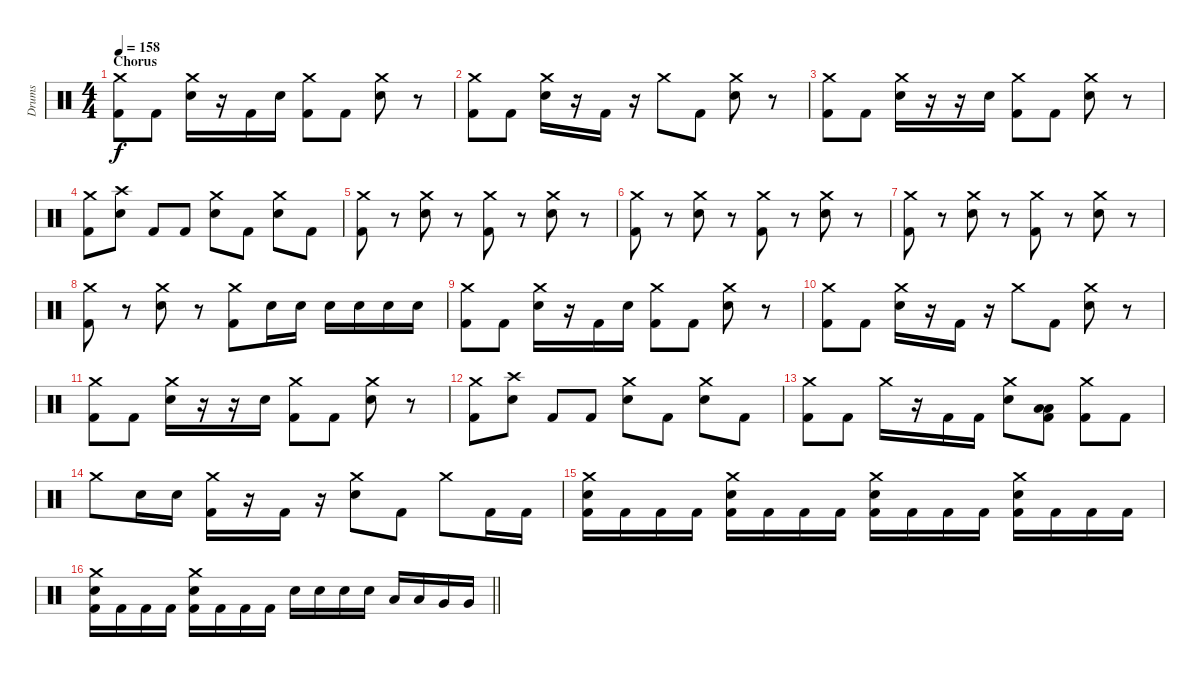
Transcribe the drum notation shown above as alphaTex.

\track ("Drums" "Drums") {instrument percussion}
\staff {score}
\articulation defaults
\ts (4 4)
\section ("" "Chorus")
\tempo 158
\clef neutral
\ks c
("Crash medium (hit)" "Kick (hit) 2").8{dy f} "Kick (hit) 2".8 ("Crash medium (hit)" "Snare (hit) 2").16 r.16 "Kick (hit) 2".16 "Snare (hit) 2".16 ("Crash medium (hit)" "Kick (hit) 2").8 "Kick (hit) 2".8 ("Crash medium (hit)" "Snare (hit) 2").8 r.8 |
("Crash medium (hit)" "Kick (hit) 2").8 "Kick (hit) 2".8 ("Crash medium (hit)" "Snare (hit) 2").16 r.16 "Kick (hit) 2".16 r.16 "Crash medium (hit)".8 "Kick (hit) 2".8 ("Crash medium (hit)" "Snare (hit) 2").8 r.8 |
("Crash medium (hit)" "Kick (hit) 2").8 "Kick (hit) 2".8 ("Crash medium (hit)" "Snare (hit) 2").16 r.16 r.16 "Snare (hit) 2".16 ("Crash medium (hit)" "Kick (hit) 2").8 "Kick (hit) 2".8 ("Crash medium (hit)" "Snare (hit) 2").8 r.8 |
("Crash medium (hit)" "Kick (hit) 2").8 ("Crash high (hit)" "Snare (hit) 2").8 "Kick (hit) 2".8 "Kick (hit) 2".8 ("Crash medium (hit)" "Snare (hit) 2").8 "Kick (hit) 2".8 ("Crash medium (hit)" "Snare (hit) 2").8 "Kick (hit) 2".8 |
("Crash medium (hit)" "Kick (hit) 2").8 r.8 ("Crash medium (hit)" "Snare (hit) 2").8 r.8 ("Crash medium (hit)" "Kick (hit) 2").8 r.8 ("Crash medium (hit)" "Snare (hit) 2").8 r.8 |
("Crash medium (hit)" "Kick (hit) 2").8 r.8 ("Crash medium (hit)" "Snare (hit) 2").8 r.8 ("Crash medium (hit)" "Kick (hit) 2").8 r.8 ("Crash medium (hit)" "Snare (hit) 2").8 r.8 |
("Crash medium (hit)" "Kick (hit) 2").8 r.8 ("Crash medium (hit)" "Snare (hit) 2").8 r.8 ("Crash medium (hit)" "Kick (hit) 2").8 r.8 ("Crash medium (hit)" "Snare (hit) 2").8 r.8 |
("Crash medium (hit)" "Kick (hit) 2").8 r.8 ("Crash medium (hit)" "Snare (hit) 2").8 r.8 ("Crash medium (hit)" "Kick (hit) 2").8 "Snare (hit) 2".16 "Snare (hit) 2".16 "Snare (hit) 2".16 "Snare (hit) 2".16 "Snare (hit) 2".16 "Snare (hit) 2".16 |
("Crash medium (hit)" "Kick (hit) 2").8 "Kick (hit) 2".8 ("Crash medium (hit)" "Snare (hit) 2").16 r.16 "Kick (hit) 2".16 "Snare (hit) 2".16 ("Crash medium (hit)" "Kick (hit) 2").8 "Kick (hit) 2".8 ("Crash medium (hit)" "Snare (hit) 2").8 r.8 |
("Crash medium (hit)" "Kick (hit) 2").8 "Kick (hit) 2".8 ("Crash medium (hit)" "Snare (hit) 2").16 r.16 "Kick (hit) 2".16 r.16 "Crash medium (hit)".8 "Kick (hit) 2".8 ("Crash medium (hit)" "Snare (hit) 2").8 r.8 |
("Crash medium (hit)" "Kick (hit) 2").8 "Kick (hit) 2".8 ("Crash medium (hit)" "Snare (hit) 2").16 r.16 r.16 "Snare (hit) 2".16 ("Crash medium (hit)" "Kick (hit) 2").8 "Kick (hit) 2".8 ("Crash medium (hit)" "Snare (hit) 2").8 r.8 |
("Crash medium (hit)" "Kick (hit) 2").8 ("Crash high (hit)" "Snare (hit) 2").8 "Kick (hit) 2".8 "Kick (hit) 2".8 ("Crash medium (hit)" "Snare (hit) 2").8 "Kick (hit) 2".8 ("Crash medium (hit)" "Snare (hit) 2").8 "Kick (hit) 2".8 |
("Crash medium (hit)" "Kick (hit) 2").8 "Kick (hit) 2".8 "Crash medium (hit)".16 r.16 "Kick (hit) 2".16 "Kick (hit) 2".16 ("Crash medium (hit)" "Snare (hit) 2").8 ("Low Floor Tom (hit)" "Low Tom (hit)" "Kick (hit) 2").8 ("Crash medium (hit)" "Kick (hit) 2").8 "Kick (hit) 2".8 |
"Crash medium (hit)".8 "Snare (hit) 2".16 "Snare (hit) 2".16 ("Crash medium (hit)" "Kick (hit) 2").16 r.16 "Kick (hit) 2".16 r.16 ("Crash medium (hit)" "Snare (hit) 2").8 "Kick (hit) 2".8 "Crash medium (hit)".8 "Kick (hit) 2".16 "Kick (hit) 2".16 |
("Crash medium (hit)" "Snare (hit) 2" "Kick (hit) 2").16 "Kick (hit) 2".16 "Kick (hit) 2".16 "Kick (hit) 2".16 ("Crash medium (hit)" "Snare (hit) 2" "Kick (hit) 2").16 "Kick (hit) 2".16 "Kick (hit) 2".16 "Kick (hit) 2".16 ("Crash medium (hit)" "Snare (hit) 2" "Kick (hit) 2").16 "Kick (hit) 2".16 "Kick (hit) 2".16 "Kick (hit) 2".16 ("Crash medium (hit)" "Snare (hit) 2" "Kick (hit) 2").16 "Kick (hit) 2".16 "Kick (hit) 2".16 "Kick (hit) 2".16 |
\barLineRight lightlight
("Crash medium (hit)" "Snare (hit) 2" "Kick (hit) 2").16 "Kick (hit) 2".16 "Kick (hit) 2".16 "Kick (hit) 2".16 ("Crash medium (hit)" "Snare (hit) 2" "Kick (hit) 2").16 "Kick (hit) 2".16 "Kick (hit) 2".16 "Kick (hit) 2".16 "Snare (hit) 2".16 "Snare (hit) 2".16 "Snare (hit) 2".16 "Snare (hit) 2".16 "Low Tom (hit)".16 "Low Tom (hit)".16 "Very Low Tom (hit)".16 "Very Low Tom (hit)".16
